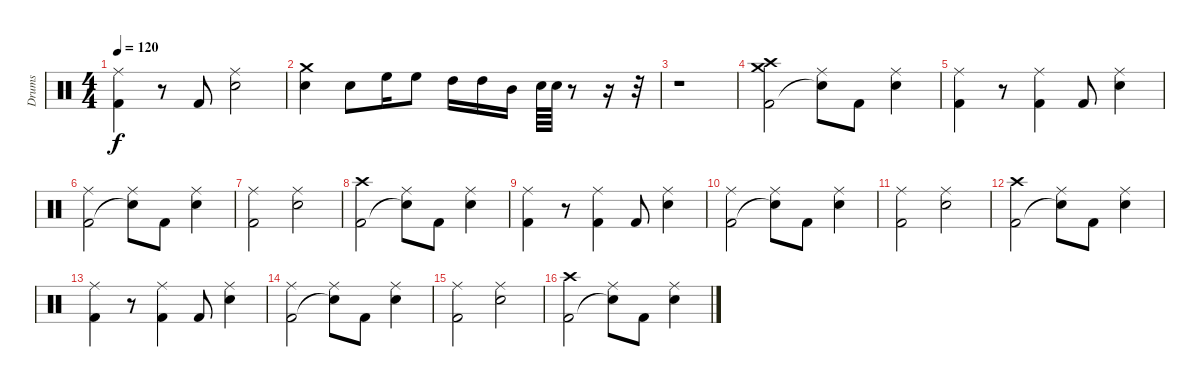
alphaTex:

\track ("Drums" "Drums") {instrument percussion}
\staff {score}
\articulation defaults
\ts (4 4)
\tempo 120
\clef neutral
\ks c
("Kick (hit) 2" "Ride (middle)").4{dy f} r.8 "Kick (hit) 2".8 ("Electric Snare (hit)" "Ride (middle)").2 |
("Electric Snare (hit)" "Crash medium (hit)").4 "Electric Snare (hit)".8 "High Floor Tom (hit)".16 "High Floor Tom (hit)".8 "High Tom (hit)".16 "High Tom (hit)".16 "Mid Tom (hit)".16 "Electric Snare (hit)".64 "Electric Snare (hit)".64 r.8 r.16 r.32 |
r.1 |
("Kick (hit) 2" "Crash high (hit)" "Crash medium (hit)").2 ("Snare (hit)"{t} "Ride (middle)").8 "Kick (hit) 2".8 ("Electric Snare (hit)" "Ride (middle)").4 |
("Kick (hit) 2" "Ride (middle)").4 r.8 ("Kick (hit) 2" "Ride (middle)").4 "Kick (hit) 2".8 ("Electric Snare (hit)" "Ride (middle)").4 |
("Kick (hit) 2" "Ride (middle)").2 ("Snare (hit)"{t} "Ride (middle)").8 "Kick (hit) 2".8 ("Electric Snare (hit)" "Ride (middle)").4 |
("Kick (hit) 2" "Ride (middle)").2 ("Electric Snare (hit)" "Ride (middle)").2 |
("Kick (hit) 2" "Crash high (hit)").2 ("Snare (hit)"{t} "Ride (middle)").8 "Kick (hit) 2".8 ("Electric Snare (hit)" "Ride (middle)").4 |
("Kick (hit) 2" "Ride (middle)").4 r.8 ("Kick (hit) 2" "Ride (middle)").4 "Kick (hit) 2".8 ("Electric Snare (hit)" "Ride (middle)").4 |
("Kick (hit) 2" "Ride (middle)").2 ("Snare (hit)"{t} "Ride (middle)").8 "Kick (hit) 2".8 ("Electric Snare (hit)" "Ride (middle)").4 |
("Kick (hit) 2" "Ride (middle)").2 ("Electric Snare (hit)" "Ride (middle)").2 |
("Kick (hit) 2" "Crash high (hit)").2 ("Snare (hit)"{t} "Ride (middle)").8 "Kick (hit) 2".8 ("Electric Snare (hit)" "Ride (middle)").4 |
("Kick (hit) 2" "Ride (middle)").4 r.8 ("Kick (hit) 2" "Ride (middle)").4 "Kick (hit) 2".8 ("Electric Snare (hit)" "Ride (middle)").4 |
("Kick (hit) 2" "Ride (middle)").2 ("Snare (hit)"{t} "Ride (middle)").8 "Kick (hit) 2".8 ("Electric Snare (hit)" "Ride (middle)").4 |
("Kick (hit) 2" "Ride (middle)").2 ("Electric Snare (hit)" "Ride (middle)").2 |
("Kick (hit) 2" "Crash high (hit)").2 ("Snare (hit)"{t} "Ride (middle)").8 "Kick (hit) 2".8 ("Electric Snare (hit)" "Ride (middle)").4
